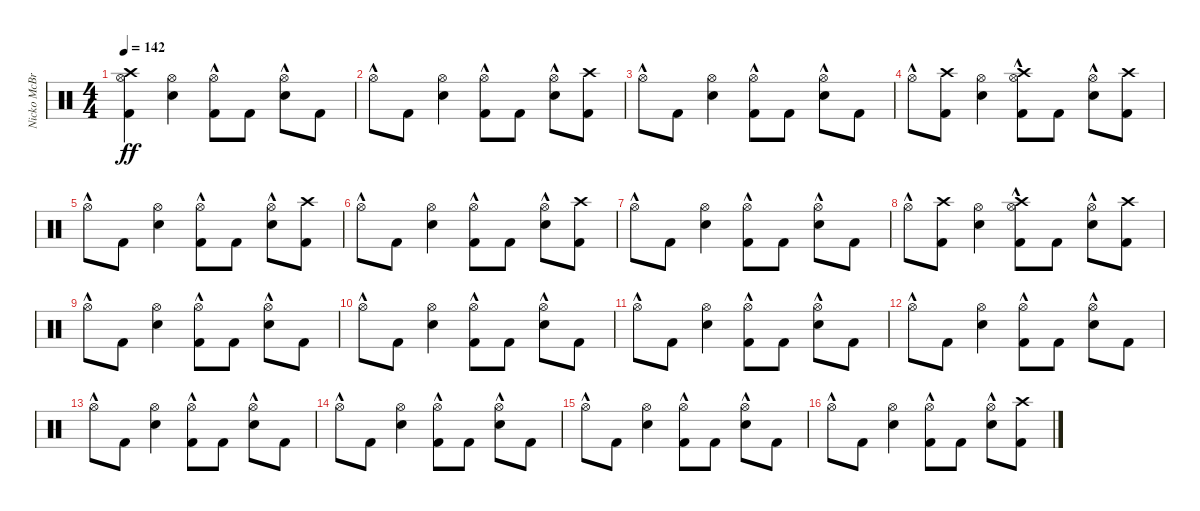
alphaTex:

\track ("Nicko McBrain" "Nicko McBr") {instrument percussion}
\staff {score}
\articulation defaults
\ts (4 4)
\tempo 142
\clef neutral
\ks c
("Kick (hit) 2" "Hi-Hat (open)" "Crash high (hit)").4{dy ff} ("Snare (hit) 2" "Hi-Hat (open)").4 ("Kick (hit) 2" "Hi-Hat (open)"{hac}).8 "Kick (hit) 2".8 ("Snare (hit) 2" "Hi-Hat (open)"{hac}).8 "Kick (hit) 2".8 |
"Hi-Hat (open)"{hac}.8 "Kick (hit) 2".8 ("Snare (hit) 2" "Hi-Hat (open)").4 ("Kick (hit) 2" "Hi-Hat (open)"{hac}).8 "Kick (hit) 2".8 ("Snare (hit) 2" "Hi-Hat (open)"{hac}).8 ("Kick (hit) 2" "Crash high (hit)").8 |
"Hi-Hat (open)"{hac}.8 "Kick (hit) 2".8 ("Snare (hit) 2" "Hi-Hat (open)").4 ("Kick (hit) 2" "Hi-Hat (open)"{hac}).8 "Kick (hit) 2".8 ("Snare (hit) 2" "Hi-Hat (open)"{hac}).8 "Kick (hit) 2".8 |
"Hi-Hat (open)"{hac}.8 ("Kick (hit) 2" "Crash high (hit)").8 ("Snare (hit) 2" "Hi-Hat (open)").4 ("Kick (hit) 2" "Hi-Hat (open)"{hac} "Crash high (hit)"{hac}).8 "Kick (hit) 2".8 ("Snare (hit) 2" "Hi-Hat (open)"{hac}).8 ("Kick (hit) 2" "Crash high (hit)").8 |
"Hi-Hat (open)"{hac}.8 "Kick (hit) 2".8 ("Snare (hit) 2" "Hi-Hat (open)").4 ("Kick (hit) 2" "Hi-Hat (open)"{hac}).8 "Kick (hit) 2".8 ("Snare (hit) 2" "Hi-Hat (open)"{hac}).8 ("Kick (hit) 2" "Crash high (hit)").8 |
"Hi-Hat (open)"{hac}.8 "Kick (hit) 2".8 ("Snare (hit) 2" "Hi-Hat (open)").4 ("Kick (hit) 2" "Hi-Hat (open)"{hac}).8 "Kick (hit) 2".8 ("Snare (hit) 2" "Hi-Hat (open)"{hac}).8 ("Kick (hit) 2" "Crash high (hit)").8 |
"Hi-Hat (open)"{hac}.8 "Kick (hit) 2".8 ("Snare (hit) 2" "Hi-Hat (open)").4 ("Kick (hit) 2" "Hi-Hat (open)"{hac}).8 "Kick (hit) 2".8 ("Snare (hit) 2" "Hi-Hat (open)"{hac}).8 "Kick (hit) 2".8 |
"Hi-Hat (open)"{hac}.8 ("Kick (hit) 2" "Crash high (hit)").8 ("Snare (hit) 2" "Hi-Hat (open)").4 ("Kick (hit) 2" "Hi-Hat (open)"{hac} "Crash high (hit)"{hac}).8 "Kick (hit) 2".8 ("Snare (hit) 2" "Hi-Hat (open)"{hac}).8 ("Kick (hit) 2" "Crash high (hit)").8 |
"Hi-Hat (open)"{hac}.8 "Kick (hit) 2".8 ("Snare (hit) 2" "Hi-Hat (open)").4 ("Kick (hit) 2" "Hi-Hat (open)"{hac}).8 "Kick (hit) 2".8 ("Snare (hit) 2" "Hi-Hat (open)"{hac}).8 "Kick (hit) 2".8 |
"Hi-Hat (open)"{hac}.8 "Kick (hit) 2".8 ("Snare (hit) 2" "Hi-Hat (open)").4 ("Kick (hit) 2" "Hi-Hat (open)"{hac}).8 "Kick (hit) 2".8 ("Snare (hit) 2" "Hi-Hat (open)"{hac}).8 "Kick (hit) 2".8 |
"Hi-Hat (open)"{hac}.8 "Kick (hit) 2".8 ("Snare (hit) 2" "Hi-Hat (open)").4 ("Kick (hit) 2" "Hi-Hat (open)"{hac}).8 "Kick (hit) 2".8 ("Snare (hit) 2" "Hi-Hat (open)"{hac}).8 "Kick (hit) 2".8 |
"Hi-Hat (open)"{hac}.8 "Kick (hit) 2".8 ("Snare (hit) 2" "Hi-Hat (open)").4 ("Kick (hit) 2" "Hi-Hat (open)"{hac}).8 "Kick (hit) 2".8 ("Snare (hit) 2" "Hi-Hat (open)"{hac}).8 "Kick (hit) 2".8 |
"Hi-Hat (open)"{hac}.8 "Kick (hit) 2".8 ("Snare (hit) 2" "Hi-Hat (open)").4 ("Kick (hit) 2" "Hi-Hat (open)"{hac}).8 "Kick (hit) 2".8 ("Snare (hit) 2" "Hi-Hat (open)"{hac}).8 "Kick (hit) 2".8 |
"Hi-Hat (open)"{hac}.8 "Kick (hit) 2".8 ("Snare (hit) 2" "Hi-Hat (open)").4 ("Kick (hit) 2" "Hi-Hat (open)"{hac}).8 "Kick (hit) 2".8 ("Snare (hit) 2" "Hi-Hat (open)"{hac}).8 "Kick (hit) 2".8 |
"Hi-Hat (open)"{hac}.8 "Kick (hit) 2".8 ("Snare (hit) 2" "Hi-Hat (open)").4 ("Kick (hit) 2" "Hi-Hat (open)"{hac}).8 "Kick (hit) 2".8 ("Snare (hit) 2" "Hi-Hat (open)"{hac}).8 "Kick (hit) 2".8 |
"Hi-Hat (open)"{hac}.8 "Kick (hit) 2".8 ("Snare (hit) 2" "Hi-Hat (open)").4 ("Kick (hit) 2" "Hi-Hat (open)"{hac}).8 "Kick (hit) 2".8 ("Snare (hit) 2" "Hi-Hat (open)"{hac}).8 ("Kick (hit) 2" "Crash high (hit)").8
